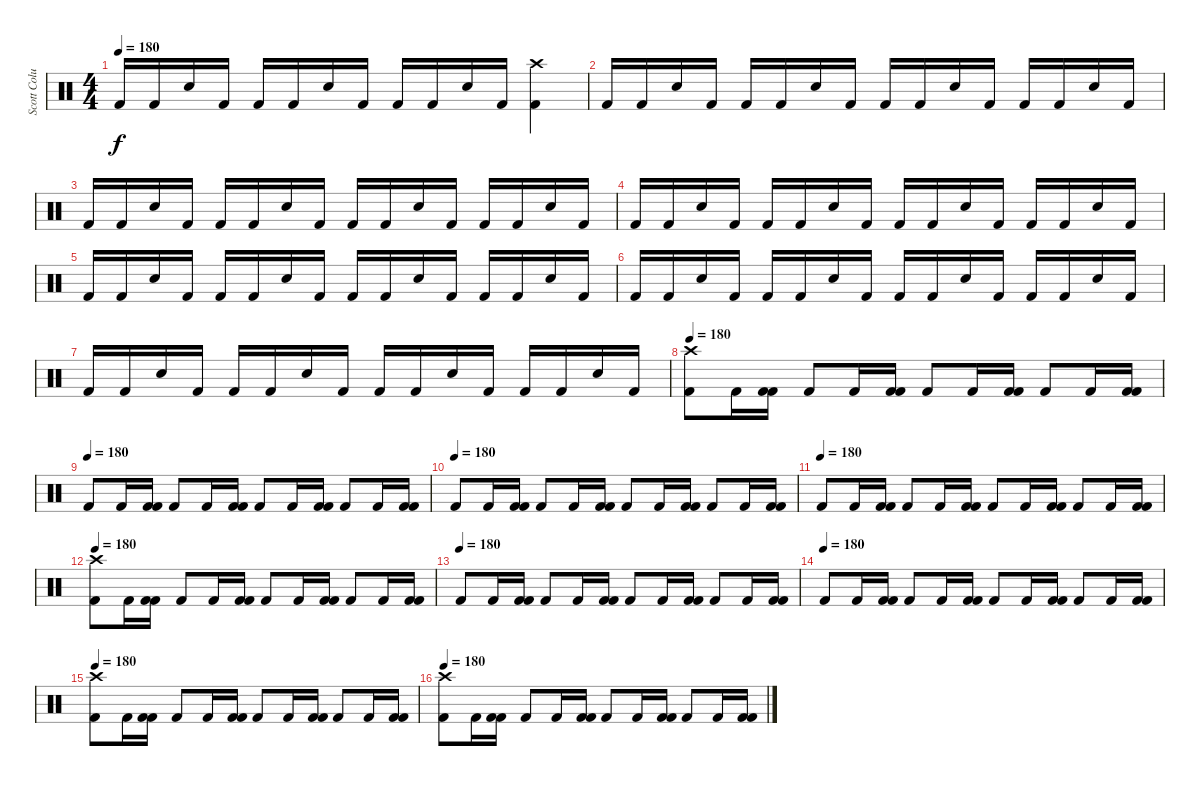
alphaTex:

\track ("Scott Columbus" "Scott Colu") {instrument percussion}
\staff {score}
\articulation defaults
\ts (4 4)
\tempo 180
\clef neutral
\ks c "Kick (hit) 2".16{dy f} "Kick (hit) 2".16 "Snare (hit) 2".16 "Kick (hit) 2".16 "Kick (hit) 2".16 "Kick (hit) 2".16 "Snare (hit) 2".16 "Kick (hit) 2".16 "Kick (hit) 2".16 "Kick (hit) 2".16 "Snare (hit) 2".16 "Kick (hit) 2".16
("Kick (hit) 2" "Crash high (hit)").4 |
"Kick (hit) 2".16 "Kick (hit) 2".16 "Snare (hit) 2".16 "Kick (hit) 2".16 "Kick (hit) 2".16 "Kick (hit) 2".16 "Snare (hit) 2".16 "Kick (hit) 2".16 "Kick (hit) 2".16 "Kick (hit) 2".16 "Snare (hit) 2".16 "Kick (hit) 2".16 "Kick (hit) 2".16 "Kick (hit) 2".16 "Snare (hit) 2".16 "Kick (hit) 2".16 |
"Kick (hit) 2".16 "Kick (hit) 2".16 "Snare (hit) 2".16 "Kick (hit) 2".16 "Kick (hit) 2".16 "Kick (hit) 2".16 "Snare (hit) 2".16 "Kick (hit) 2".16 "Kick (hit) 2".16 "Kick (hit) 2".16 "Snare (hit) 2".16 "Kick (hit) 2".16 "Kick (hit) 2".16 "Kick (hit) 2".16 "Snare (hit) 2".16 "Kick (hit) 2".16 |
"Kick (hit) 2".16 "Kick (hit) 2".16 "Snare (hit) 2".16 "Kick (hit) 2".16 "Kick (hit) 2".16 "Kick (hit) 2".16 "Snare (hit) 2".16 "Kick (hit) 2".16 "Kick (hit) 2".16 "Kick (hit) 2".16 "Snare (hit) 2".16 "Kick (hit) 2".16 "Kick (hit) 2".16 "Kick (hit) 2".16 "Snare (hit) 2".16 "Kick (hit) 2".16 |
"Kick (hit) 2".16 "Kick (hit) 2".16 "Snare (hit) 2".16 "Kick (hit) 2".16 "Kick (hit) 2".16 "Kick (hit) 2".16 "Snare (hit) 2".16 "Kick (hit) 2".16 "Kick (hit) 2".16 "Kick (hit) 2".16 "Snare (hit) 2".16 "Kick (hit) 2".16 "Kick (hit) 2".16 "Kick (hit) 2".16 "Snare (hit) 2".16 "Kick (hit) 2".16 |
"Kick (hit) 2".16 "Kick (hit) 2".16 "Snare (hit) 2".16 "Kick (hit) 2".16 "Kick (hit) 2".16 "Kick (hit) 2".16 "Snare (hit) 2".16 "Kick (hit) 2".16 "Kick (hit) 2".16 "Kick (hit) 2".16 "Snare (hit) 2".16 "Kick (hit) 2".16 "Kick (hit) 2".16 "Kick (hit) 2".16 "Snare (hit) 2".16 "Kick (hit) 2".16 |
"Kick (hit) 2".16 "Kick (hit) 2".16 "Snare (hit) 2".16 "Kick (hit) 2".16 "Kick (hit) 2".16 "Kick (hit) 2".16 "Snare (hit) 2".16 "Kick (hit) 2".16 "Kick (hit) 2".16 "Kick (hit) 2".16 "Snare (hit) 2".16 "Kick (hit) 2".16 "Kick (hit) 2".16 "Kick (hit) 2".16 "Snare (hit) 2".16 "Kick (hit) 2".16 |
\tempo 180
("Crash high (hit)" "Kick (hit) 2").8 "Kick (hit) 2".16 ("Kick (hit) 2" "Kick (hit) 2").16 "Kick (hit) 2".8 "Kick (hit) 2".16 ("Kick (hit) 2" "Kick (hit) 2").16 "Kick (hit) 2".8 "Kick (hit) 2".16 ("Kick (hit) 2" "Kick (hit) 2").16 "Kick (hit) 2".8 "Kick (hit) 2".16 ("Kick (hit) 2" "Kick (hit) 2").16 |
\tempo (180)
"Kick (hit) 2".8 "Kick (hit) 2".16 ("Kick (hit) 2" "Kick (hit) 2").16 "Kick (hit) 2".8 "Kick (hit) 2".16 ("Kick (hit) 2" "Kick (hit) 2").16 "Kick (hit) 2".8 "Kick (hit) 2".16 ("Kick (hit) 2" "Kick (hit) 2").16 "Kick (hit) 2".8 "Kick (hit) 2".16 ("Kick (hit) 2" "Kick (hit) 2").16 |
\tempo (180)
"Kick (hit) 2".8 "Kick (hit) 2".16 ("Kick (hit) 2" "Kick (hit) 2").16 "Kick (hit) 2".8 "Kick (hit) 2".16 ("Kick (hit) 2" "Kick (hit) 2").16 "Kick (hit) 2".8 "Kick (hit) 2".16 ("Kick (hit) 2" "Kick (hit) 2").16 "Kick (hit) 2".8 "Kick (hit) 2".16 ("Kick (hit) 2" "Kick (hit) 2").16 |
\tempo (180)
"Kick (hit) 2".8 "Kick (hit) 2".16 ("Kick (hit) 2" "Kick (hit) 2").16 "Kick (hit) 2".8 "Kick (hit) 2".16 ("Kick (hit) 2" "Kick (hit) 2").16 "Kick (hit) 2".8 "Kick (hit) 2".16 ("Kick (hit) 2" "Kick (hit) 2").16 "Kick (hit) 2".8 "Kick (hit) 2".16 ("Kick (hit) 2" "Kick (hit) 2").16 |
\tempo 180
("Crash high (hit)" "Kick (hit) 2").8 "Kick (hit) 2".16 ("Kick (hit) 2" "Kick (hit) 2").16 "Kick (hit) 2".8 "Kick (hit) 2".16 ("Kick (hit) 2" "Kick (hit) 2").16 "Kick (hit) 2".8 "Kick (hit) 2".16 ("Kick (hit) 2" "Kick (hit) 2").16 "Kick (hit) 2".8 "Kick (hit) 2".16 ("Kick (hit) 2" "Kick (hit) 2").16 |
\tempo (180)
"Kick (hit) 2".8 "Kick (hit) 2".16 ("Kick (hit) 2" "Kick (hit) 2").16 "Kick (hit) 2".8 "Kick (hit) 2".16 ("Kick (hit) 2" "Kick (hit) 2").16 "Kick (hit) 2".8 "Kick (hit) 2".16 ("Kick (hit) 2" "Kick (hit) 2").16 "Kick (hit) 2".8 "Kick (hit) 2".16 ("Kick (hit) 2" "Kick (hit) 2").16 |
\tempo (180)
"Kick (hit) 2".8 "Kick (hit) 2".16 ("Kick (hit) 2" "Kick (hit) 2").16 "Kick (hit) 2".8 "Kick (hit) 2".16 ("Kick (hit) 2" "Kick (hit) 2").16 "Kick (hit) 2".8 "Kick (hit) 2".16 ("Kick (hit) 2" "Kick (hit) 2").16 "Kick (hit) 2".8 "Kick (hit) 2".16 ("Kick (hit) 2" "Kick (hit) 2").16 |
\tempo 180
("Crash high (hit)" "Kick (hit) 2").8 "Kick (hit) 2".16 ("Kick (hit) 2" "Kick (hit) 2").16 "Kick (hit) 2".8 "Kick (hit) 2".16 ("Kick (hit) 2" "Kick (hit) 2").16 "Kick (hit) 2".8 "Kick (hit) 2".16 ("Kick (hit) 2" "Kick (hit) 2").16 "Kick (hit) 2".8 "Kick (hit) 2".16 ("Kick (hit) 2" "Kick (hit) 2").16 |
\tempo 180
("Crash high (hit)" "Kick (hit) 2").8 "Kick (hit) 2".16 ("Kick (hit) 2" "Kick (hit) 2").16 "Kick (hit) 2".8 "Kick (hit) 2".16 ("Kick (hit) 2" "Kick (hit) 2").16 "Kick (hit) 2".8 "Kick (hit) 2".16 ("Kick (hit) 2" "Kick (hit) 2").16 "Kick (hit) 2".8 "Kick (hit) 2".16 ("Kick (hit) 2" "Kick (hit) 2").16
